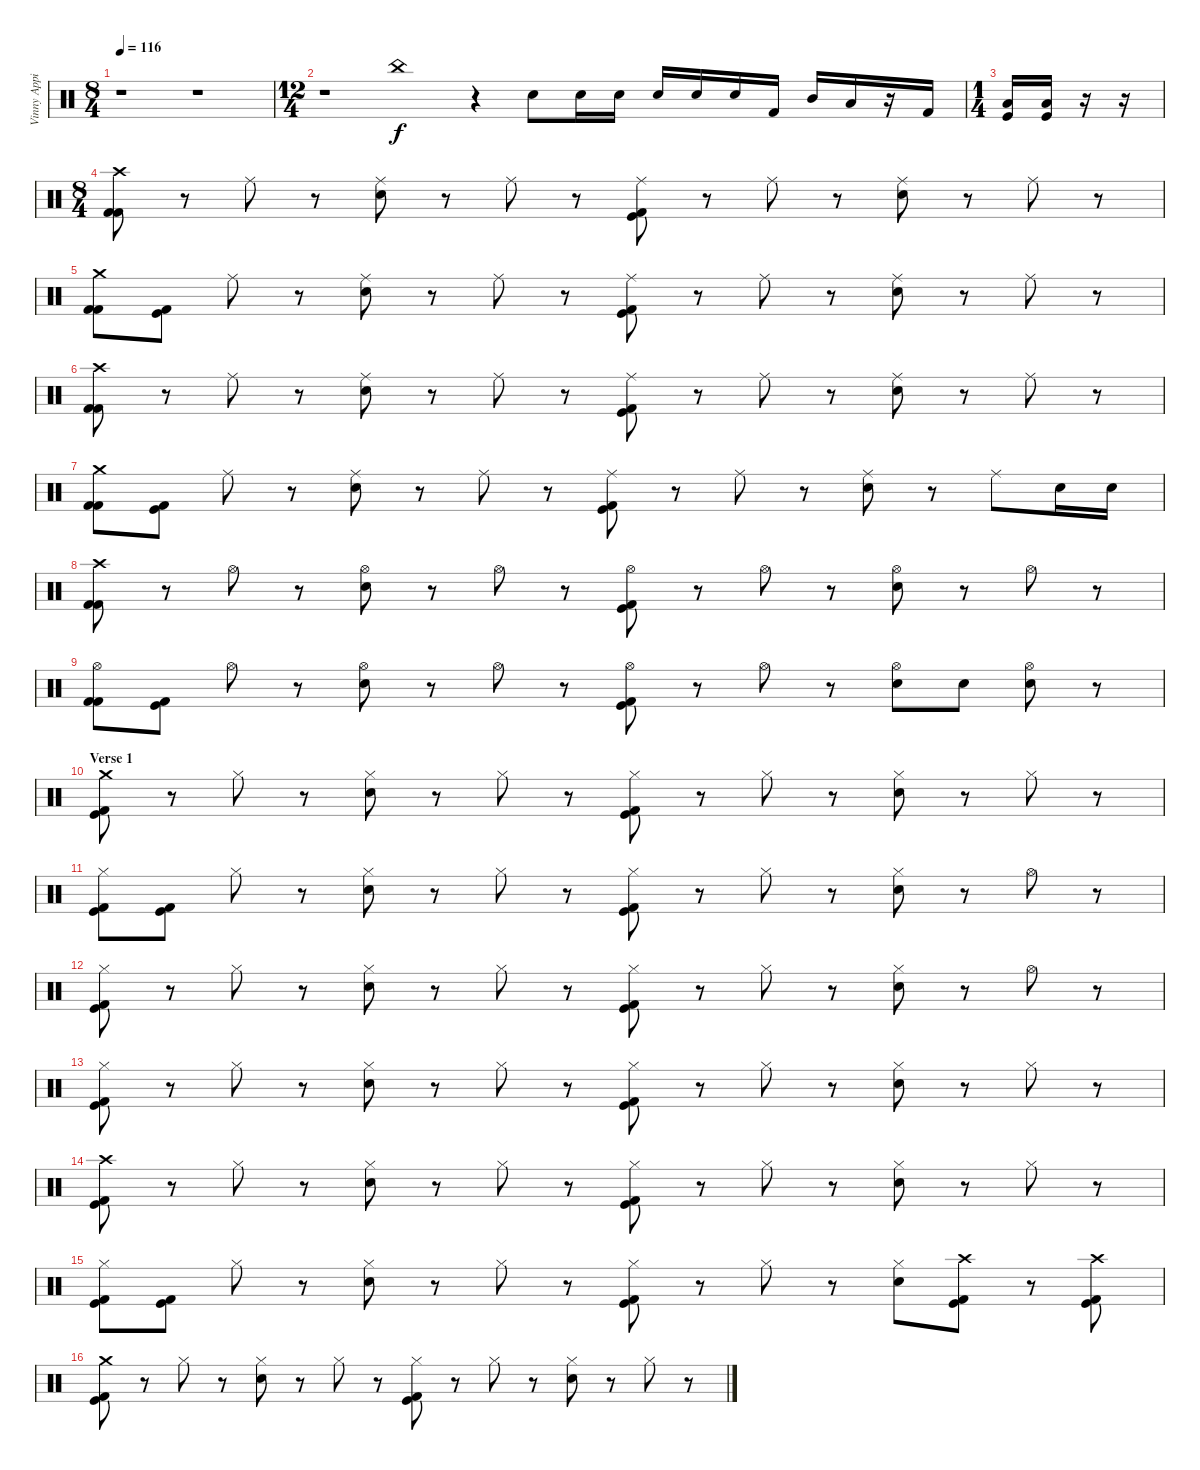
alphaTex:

\track ("Vinny Appice" "Vinny Appi") {instrument percussion}
\staff {score}
\articulation defaults
\ts (8 4)
\tempo 116
\clef neutral
\ks c
r.1{dy f} r.1 |
\ts (12 4)
r.1 "China (hit)".1 r.4 "Snare (hit) 2".8 "Snare (hit) 2".16 "Snare (hit) 2".16 "Snare (hit) 2".16 "Snare (hit) 2".16 "Snare (hit) 2".16 "Kick (hit) 2".16 "Mid Tom (hit)".16 "Low Tom (hit)".16 r.16 "Kick (hit) 2".16 |
\ts (1 4)
("Low Tom (hit)" "Kick (hit)").16 ("Low Tom (hit)" "Kick (hit)").16 r.16 r.16 |
\ts (8 4)
("Crash high (hit)" "Kick (hit) 2" "Kick (hit) 2").8 r.8 "Ride (middle)".8 r.8 ("Ride (middle)" "Snare (hit) 2").8 r.8 "Ride (middle)".8 r.8 ("Ride (middle)" "Kick (hit)" "Kick (hit) 2").8 r.8 "Ride (middle)".8 r.8 ("Ride (middle)" "Snare (hit) 2").8 r.8 "Ride (middle)".8 r.8 |
("Crash medium (hit)" "Kick (hit) 2" "Kick (hit) 2").8 ("Kick (hit)" "Kick (hit) 2").8 "Ride (middle)".8 r.8 ("Ride (middle)" "Snare (hit) 2").8 r.8 "Ride (middle)".8 r.8 ("Ride (middle)" "Kick (hit)" "Kick (hit) 2").8 r.8 "Ride (middle)".8 r.8 ("Ride (middle)" "Snare (hit) 2").8 r.8 "Ride (middle)".8 r.8 |
("Crash high (hit)" "Kick (hit) 2" "Kick (hit) 2").8 r.8 "Ride (middle)".8 r.8 ("Ride (middle)" "Snare (hit) 2").8 r.8 "Ride (middle)".8 r.8 ("Ride (middle)" "Kick (hit)" "Kick (hit) 2").8 r.8 "Ride (middle)".8 r.8 ("Ride (middle)" "Snare (hit) 2").8 r.8 "Ride (middle)".8 r.8 |
("Crash medium (hit)" "Kick (hit) 2" "Kick (hit) 2").8 ("Kick (hit)" "Kick (hit) 2").8 "Ride (middle)".8 r.8 ("Ride (middle)" "Snare (hit) 2").8 r.8 "Ride (middle)".8 r.8 ("Ride (middle)" "Kick (hit)" "Kick (hit) 2").8 r.8 "Ride (middle)".8 r.8 ("Ride (middle)" "Snare (hit) 2").8 r.8 "Ride (middle)".8 "Snare (hit) 2".16 "Snare (hit) 2".16 |
("Crash high (hit)" "Kick (hit) 2" "Kick (hit) 2").8 r.8 "Hi-Hat (open)".8 r.8 ("Hi-Hat (open)" "Snare (hit) 2").8 r.8 "Hi-Hat (open)".8 r.8 ("Hi-Hat (open)" "Kick (hit)" "Kick (hit) 2").8 r.8 "Hi-Hat (open)".8 r.8 ("Hi-Hat (open)" "Snare (hit) 2").8 r.8 "Hi-Hat (open)".8 r.8 |
("Hi-Hat (open)" "Kick (hit) 2" "Kick (hit) 2").8 ("Kick (hit)" "Kick (hit) 2").8 "Hi-Hat (open)".8 r.8 ("Hi-Hat (open)" "Snare (hit) 2").8 r.8 "Hi-Hat (open)".8 r.8 ("Hi-Hat (open)" "Kick (hit)" "Kick (hit) 2").8 r.8 "Hi-Hat (open)".8 r.8 ("Hi-Hat (open)" "Snare (hit) 2").8 "Snare (hit) 2".8 ("Hi-Hat (open)" "Snare (hit) 2").8 r.8 |
\section ("" "Verse 1")
("Crash medium (hit)" "Kick (hit)" "Kick (hit) 2").8 r.8 "Hi-Hat (closed)".8 r.8 ("Hi-Hat (closed)" "Snare (hit) 2").8 r.8 "Hi-Hat (closed)".8 r.8 ("Hi-Hat (closed)" "Kick (hit)" "Kick (hit) 2").8 r.8 "Hi-Hat (closed)".8 r.8 ("Hi-Hat (closed)" "Snare (hit) 2").8 r.8 "Hi-Hat (closed)".8 r.8 |
("Hi-Hat (closed)" "Kick (hit)" "Kick (hit) 2").8 ("Kick (hit)" "Kick (hit) 2").8 "Hi-Hat (closed)".8 r.8 ("Hi-Hat (closed)" "Snare (hit) 2").8 r.8 "Hi-Hat (closed)".8 r.8 ("Hi-Hat (closed)" "Kick (hit)" "Kick (hit) 2").8 r.8 "Hi-Hat (closed)".8 r.8 ("Hi-Hat (closed)" "Snare (hit) 2").8 r.8 "Hi-Hat (open)".8 r.8 |
("Hi-Hat (closed)" "Kick (hit)" "Kick (hit) 2").8 r.8 "Hi-Hat (closed)".8 r.8 ("Hi-Hat (closed)" "Snare (hit) 2").8 r.8 "Hi-Hat (closed)".8 r.8 ("Hi-Hat (closed)" "Kick (hit)" "Kick (hit) 2").8 r.8 "Hi-Hat (closed)".8 r.8 ("Hi-Hat (closed)" "Snare (hit) 2").8 r.8 "Hi-Hat (open)".8 r.8 |
("Hi-Hat (closed)" "Kick (hit)" "Kick (hit) 2").8 r.8 "Hi-Hat (closed)".8 r.8 ("Hi-Hat (closed)" "Snare (hit) 2").8 r.8 "Hi-Hat (closed)".8 r.8 ("Hi-Hat (closed)" "Kick (hit)" "Kick (hit) 2").8 r.8 "Hi-Hat (closed)".8 r.8 ("Hi-Hat (closed)" "Snare (hit) 2").8 r.8 "Hi-Hat (closed)".8 r.8 |
("Crash high (hit)" "Kick (hit)" "Kick (hit) 2").8 r.8 "Hi-Hat (closed)".8 r.8 ("Hi-Hat (closed)" "Snare (hit) 2").8 r.8 "Hi-Hat (closed)".8 r.8 ("Hi-Hat (closed)" "Kick (hit)" "Kick (hit) 2").8 r.8 "Hi-Hat (closed)".8 r.8 ("Hi-Hat (closed)" "Snare (hit) 2").8 r.8 "Hi-Hat (closed)".8 r.8 |
("Hi-Hat (closed)" "Kick (hit)" "Kick (hit) 2").8 ("Kick (hit)" "Kick (hit) 2").8 "Hi-Hat (closed)".8 r.8 ("Hi-Hat (closed)" "Snare (hit) 2").8 r.8 "Hi-Hat (closed)".8 r.8 ("Hi-Hat (closed)" "Kick (hit)" "Kick (hit) 2").8 r.8 "Hi-Hat (closed)".8 r.8 ("Hi-Hat (closed)" "Snare (hit) 2").8 ("Crash high (hit)" "Kick (hit)" "Kick (hit) 2").8 r.8 ("Crash high (hit)" "Kick (hit)" "Kick (hit) 2").8 |
("Crash medium (hit)" "Kick (hit)" "Kick (hit) 2").8 r.8 "Hi-Hat (closed)".8 r.8 ("Hi-Hat (closed)" "Snare (hit) 2").8 r.8 "Hi-Hat (closed)".8 r.8 ("Hi-Hat (closed)" "Kick (hit)" "Kick (hit) 2").8 r.8 "Hi-Hat (closed)".8 r.8 ("Hi-Hat (closed)" "Snare (hit) 2").8 r.8 "Hi-Hat (closed)".8 r.8
